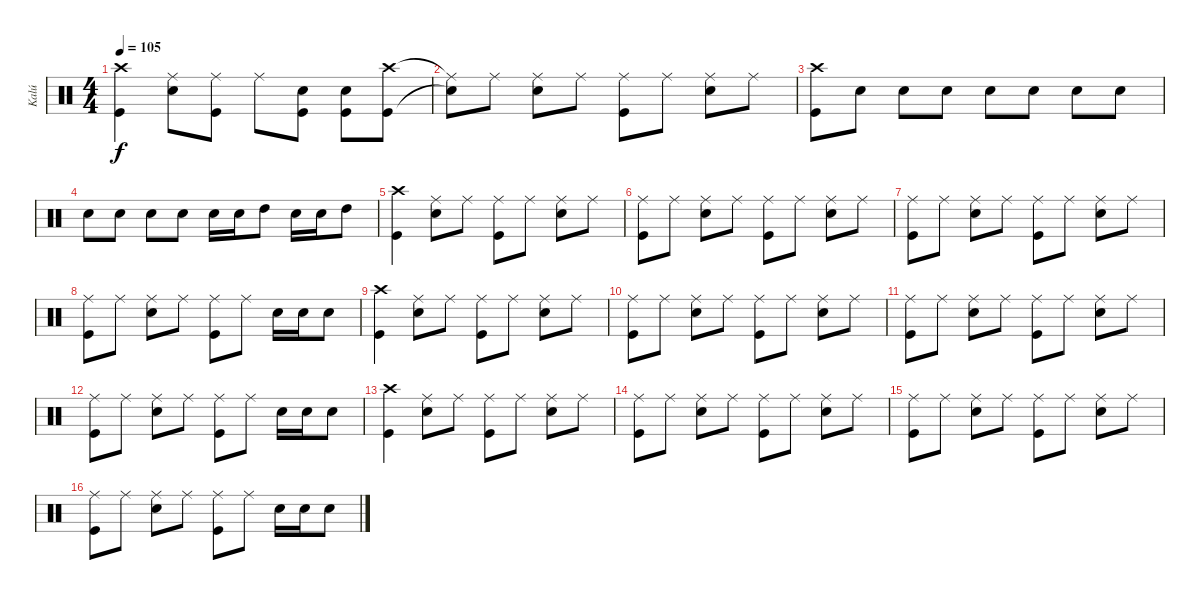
\track ("Kalú" "Kalú") {instrument percussion}
\staff {score}
\articulation defaults
\ts (4 4)
\tempo 105
\clef neutral
\ks c
("Crash high (hit)" "Kick (hit)").4{dy f} ("Ride (middle)" "Electric Snare (hit)").8 ("Ride (middle)" "Kick (hit)").8 "Ride (middle)".8 ("Kick (hit)" "Electric Snare (hit)").8 ("Kick (hit)" "Electric Snare (hit)").8 ("Crash high (hit)" "Kick (hit)").8 |
("Ride (middle)"{t} "Snare (hit)"{t}).8 "Ride (middle)".8 ("Ride (middle)" "Electric Snare (hit)").8 "Ride (middle)".8 ("Ride (middle)" "Kick (hit)").8 "Ride (middle)".8 ("Ride (middle)" "Electric Snare (hit)").8 "Ride (middle)".8 |
("Crash high (hit)" "Kick (hit)").8 "Electric Snare (hit)".8 "Electric Snare (hit)".8 "Electric Snare (hit)".8 "Electric Snare (hit)".8 "Electric Snare (hit)".8 "Electric Snare (hit)".8 "Electric Snare (hit)".8 |
"Electric Snare (hit)".8 "Electric Snare (hit)".8 "Electric Snare (hit)".8 "Electric Snare (hit)".8 "Electric Snare (hit)".16 "Electric Snare (hit)".16 "High Tom (hit)".8 "Electric Snare (hit)".16 "Electric Snare (hit)".16 "High Tom (hit)".8 |
("Crash high (hit)" "Kick (hit)").4 ("Ride (middle)" "Electric Snare (hit)").8 "Ride (middle)".8 ("Ride (middle)" "Kick (hit)").8 "Ride (middle)".8 ("Ride (middle)" "Electric Snare (hit)").8 "Ride (middle)".8 |
("Ride (middle)" "Kick (hit)").8 "Ride (middle)".8 ("Ride (middle)" "Electric Snare (hit)").8 "Ride (middle)".8 ("Ride (middle)" "Kick (hit)").8 "Ride (middle)".8 ("Ride (middle)" "Electric Snare (hit)").8 "Ride (middle)".8 |
("Ride (middle)" "Kick (hit)").8 "Ride (middle)".8 ("Ride (middle)" "Electric Snare (hit)").8 "Ride (middle)".8 ("Ride (middle)" "Kick (hit)").8 "Ride (middle)".8 ("Ride (middle)" "Electric Snare (hit)").8 "Ride (middle)".8 |
("Ride (middle)" "Kick (hit)").8 "Ride (middle)".8 ("Ride (middle)" "Electric Snare (hit)").8 "Ride (middle)".8 ("Ride (middle)" "Kick (hit)").8 "Ride (middle)".8 "Electric Snare (hit)".16 "Electric Snare (hit)".16 "Electric Snare (hit)".8 |
("Crash high (hit)" "Kick (hit)").4 ("Ride (middle)" "Electric Snare (hit)").8 "Ride (middle)".8 ("Ride (middle)" "Kick (hit)").8 "Ride (middle)".8 ("Ride (middle)" "Electric Snare (hit)").8 "Ride (middle)".8 |
("Ride (middle)" "Kick (hit)").8 "Ride (middle)".8 ("Ride (middle)" "Electric Snare (hit)").8 "Ride (middle)".8 ("Ride (middle)" "Kick (hit)").8 "Ride (middle)".8 ("Ride (middle)" "Electric Snare (hit)").8 "Ride (middle)".8 |
("Ride (middle)" "Kick (hit)").8 "Ride (middle)".8 ("Ride (middle)" "Electric Snare (hit)").8 "Ride (middle)".8 ("Ride (middle)" "Kick (hit)").8 "Ride (middle)".8 ("Ride (middle)" "Electric Snare (hit)").8 "Ride (middle)".8 |
("Ride (middle)" "Kick (hit)").8 "Ride (middle)".8 ("Ride (middle)" "Electric Snare (hit)").8 "Ride (middle)".8 ("Ride (middle)" "Kick (hit)").8 "Ride (middle)".8 "Electric Snare (hit)".16 "Electric Snare (hit)".16 "Electric Snare (hit)".8 |
("Crash high (hit)" "Kick (hit)").4 ("Ride (middle)" "Electric Snare (hit)").8 "Ride (middle)".8 ("Ride (middle)" "Kick (hit)").8 "Ride (middle)".8 ("Ride (middle)" "Electric Snare (hit)").8 "Ride (middle)".8 |
("Ride (middle)" "Kick (hit)").8 "Ride (middle)".8 ("Ride (middle)" "Electric Snare (hit)").8 "Ride (middle)".8 ("Ride (middle)" "Kick (hit)").8 "Ride (middle)".8 ("Ride (middle)" "Electric Snare (hit)").8 "Ride (middle)".8 |
("Ride (middle)" "Kick (hit)").8 "Ride (middle)".8 ("Ride (middle)" "Electric Snare (hit)").8 "Ride (middle)".8 ("Ride (middle)" "Kick (hit)").8 "Ride (middle)".8 ("Ride (middle)" "Electric Snare (hit)").8 "Ride (middle)".8 |
("Ride (middle)" "Kick (hit)").8 "Ride (middle)".8 ("Ride (middle)" "Electric Snare (hit)").8 "Ride (middle)".8 ("Ride (middle)" "Kick (hit)").8 "Ride (middle)".8 "Electric Snare (hit)".16 "Electric Snare (hit)".16 "Electric Snare (hit)".8
